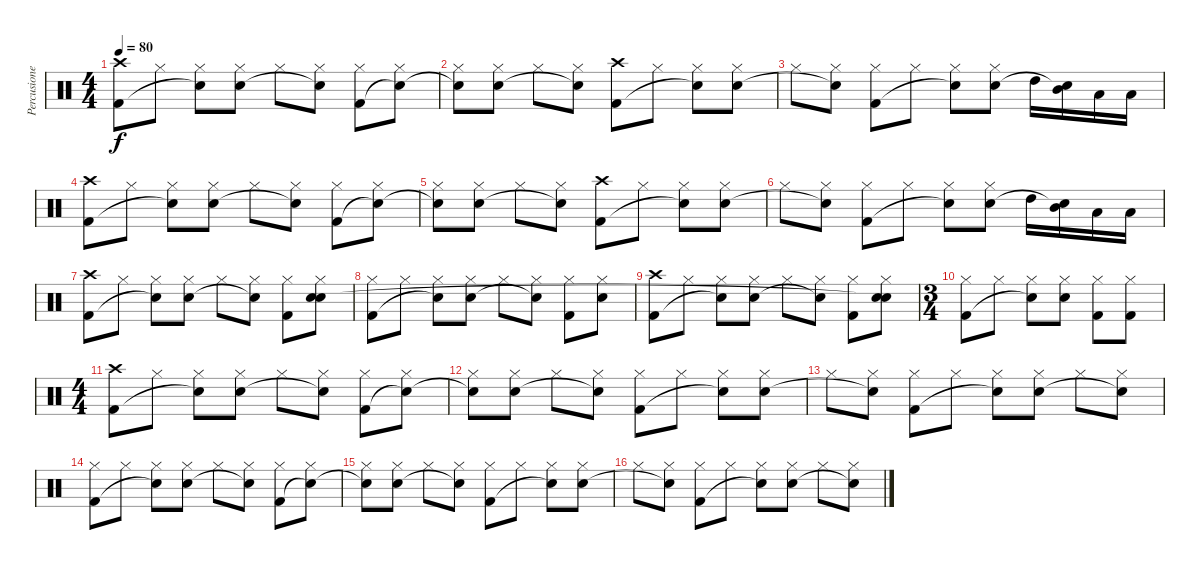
\track ("Percusiones" "Percusione") {instrument percussion}
\staff {score}
\articulation defaults
\ts (4 4)
\tempo 80
\clef neutral
\ks c
("Crash high (hit)" "Kick (hit) 2").8{dy f} "Hi-Hat (closed)".8 ("Hi-Hat (closed)" "Snare (hit)"{t}).8 ("Hi-Hat (closed)" "Electric Snare (hit)").8 "Hi-Hat (closed)".8 ("Hi-Hat (closed)" "Snare (hit)"{t}).8 ("Hi-Hat (closed)" "Kick (hit) 2").8 ("Hi-Hat (closed)" "Snare (hit)"{t}).8 |
("Hi-Hat (closed)" "Snare (hit)"{t}).8 ("Hi-Hat (closed)" "Electric Snare (hit)").8 "Hi-Hat (closed)".8 ("Hi-Hat (closed)" "Snare (hit)"{t}).8 ("Crash high (hit)" "Kick (hit) 2").8 "Hi-Hat (closed)".8 ("Hi-Hat (closed)" "Snare (hit)"{t}).8 ("Hi-Hat (closed)" "Electric Snare (hit)").8 |
"Hi-Hat (closed)".8 ("Hi-Hat (closed)" "Snare (hit)"{t}).8 ("Hi-Hat (closed)" "Kick (hit) 2").8 "Hi-Hat (closed)".8 ("Hi-Hat (closed)" "Snare (hit)"{t}).8 ("Hi-Hat (closed)" "Electric Snare (hit)").8 "High Tom (hit)".16 ("Mid Tom (hit)" "Snare (hit)"{t}).16 "Low Tom (hit)".16 "Low Tom (hit)".16 |
("Crash high (hit)" "Kick (hit) 2").8 "Hi-Hat (closed)".8 ("Hi-Hat (closed)" "Snare (hit)"{t}).8 ("Hi-Hat (closed)" "Electric Snare (hit)").8 "Hi-Hat (closed)".8 ("Hi-Hat (closed)" "Snare (hit)"{t}).8 ("Hi-Hat (closed)" "Kick (hit) 2").8 ("Hi-Hat (closed)" "Snare (hit)"{t}).8 |
("Hi-Hat (closed)" "Snare (hit)"{t}).8 ("Hi-Hat (closed)" "Electric Snare (hit)").8 "Hi-Hat (closed)".8 ("Hi-Hat (closed)" "Snare (hit)"{t}).8 ("Crash high (hit)" "Kick (hit) 2").8 "Hi-Hat (closed)".8 ("Hi-Hat (closed)" "Snare (hit)"{t}).8 ("Hi-Hat (closed)" "Electric Snare (hit)").8 |
"Hi-Hat (closed)".8 ("Hi-Hat (closed)" "Snare (hit)"{t}).8 ("Hi-Hat (closed)" "Kick (hit) 2").8 "Hi-Hat (closed)".8 ("Hi-Hat (closed)" "Snare (hit)"{t}).8 ("Hi-Hat (closed)" "Electric Snare (hit)").8 "High Tom (hit)".16 ("Mid Tom (hit)" "Snare (hit)"{t}).16 "Low Tom (hit)".16 "Low Tom (hit)".16 |
("Crash high (hit)" "Kick (hit) 2").8 "Hi-Hat (closed)".8 ("Hi-Hat (closed)" "Snare (hit)"{t}).8 ("Hi-Hat (closed)" "Electric Snare (hit)").8 "Hi-Hat (closed)".8 ("Hi-Hat (closed)" "Snare (hit)"{t}).8 ("Hi-Hat (closed)" "Kick (hit) 2").8 ("Hi-Hat (closed)" "Electric Snare (hit)" "Snare (hit)").8 |
("Hi-Hat (closed)" "Kick (hit) 2").8 "Hi-Hat (closed)".8 ("Hi-Hat (closed)" "Snare (hit)"{t}).8 ("Hi-Hat (closed)" "Electric Snare (hit)").8 "Hi-Hat (closed)".8 ("Hi-Hat (closed)" "Snare (hit)"{t}).8 ("Hi-Hat (closed)" "Kick (hit) 2").8 ("Hi-Hat (closed)" "Electric Snare (hit)").8 |
("Crash high (hit)" "Kick (hit) 2").8 "Hi-Hat (closed)".8 ("Hi-Hat (closed)" "Snare (hit)"{t}).8 ("Hi-Hat (closed)" "Electric Snare (hit)").8 "Hi-Hat (closed)".8 ("Hi-Hat (closed)" "Snare (hit)"{t}).8 ("Hi-Hat (closed)" "Kick (hit) 2").8 ("Hi-Hat (closed)" "Electric Snare (hit)" "Snare (hit)"{t}).8 |
\ts (3 4)
("Hi-Hat (closed)" "Kick (hit) 2").8 "Hi-Hat (closed)".8 ("Hi-Hat (closed)" "Snare (hit)"{t}).8 ("Hi-Hat (closed)" "Electric Snare (hit)").8 ("Hi-Hat (closed)" "Kick (hit) 2").8 ("Hi-Hat (closed)" "Kick (hit) 2").8 |
\ts (4 4)
("Crash high (hit)" "Kick (hit) 2").8 "Hi-Hat (closed)".8 ("Hi-Hat (closed)" "Snare (hit)"{t}).8 ("Hi-Hat (closed)" "Electric Snare (hit)").8 "Hi-Hat (closed)".8 ("Hi-Hat (closed)" "Snare (hit)"{t}).8 ("Hi-Hat (closed)" "Kick (hit) 2").8 ("Hi-Hat (closed)" "Snare (hit)"{t}).8 |
("Hi-Hat (closed)" "Snare (hit)"{t}).8 ("Hi-Hat (closed)" "Electric Snare (hit)").8 "Hi-Hat (closed)".8 ("Hi-Hat (closed)" "Snare (hit)"{t}).8 ("Hi-Hat (closed)" "Kick (hit) 2").8 "Hi-Hat (closed)".8 ("Hi-Hat (closed)" "Snare (hit)"{t}).8 ("Hi-Hat (closed)" "Electric Snare (hit)").8 |
"Hi-Hat (closed)".8 ("Hi-Hat (closed)" "Snare (hit)"{t}).8 ("Hi-Hat (closed)" "Kick (hit) 2").8 "Hi-Hat (closed)".8 ("Hi-Hat (closed)" "Snare (hit)"{t}).8 ("Hi-Hat (closed)" "Electric Snare (hit)").8 "Hi-Hat (closed)".8 ("Hi-Hat (closed)" "Snare (hit)"{t}).8 |
("Hi-Hat (closed)" "Kick (hit) 2").8 "Hi-Hat (closed)".8 ("Hi-Hat (closed)" "Snare (hit)"{t}).8 ("Hi-Hat (closed)" "Electric Snare (hit)").8 "Hi-Hat (closed)".8 ("Hi-Hat (closed)" "Snare (hit)"{t}).8 ("Hi-Hat (closed)" "Kick (hit) 2").8 ("Hi-Hat (closed)" "Snare (hit)"{t}).8 |
("Hi-Hat (closed)" "Snare (hit)"{t}).8 ("Hi-Hat (closed)" "Electric Snare (hit)").8 "Hi-Hat (closed)".8 ("Hi-Hat (closed)" "Snare (hit)"{t}).8 ("Hi-Hat (closed)" "Kick (hit) 2").8 "Hi-Hat (closed)".8 ("Hi-Hat (closed)" "Snare (hit)"{t}).8 ("Hi-Hat (closed)" "Electric Snare (hit)").8 |
"Hi-Hat (closed)".8 ("Hi-Hat (closed)" "Snare (hit)"{t}).8 ("Hi-Hat (closed)" "Kick (hit) 2").8 "Hi-Hat (closed)".8 ("Hi-Hat (closed)" "Snare (hit)"{t}).8 ("Hi-Hat (closed)" "Electric Snare (hit)").8 "Hi-Hat (closed)".8 ("Hi-Hat (closed)" "Snare (hit)"{t}).8
